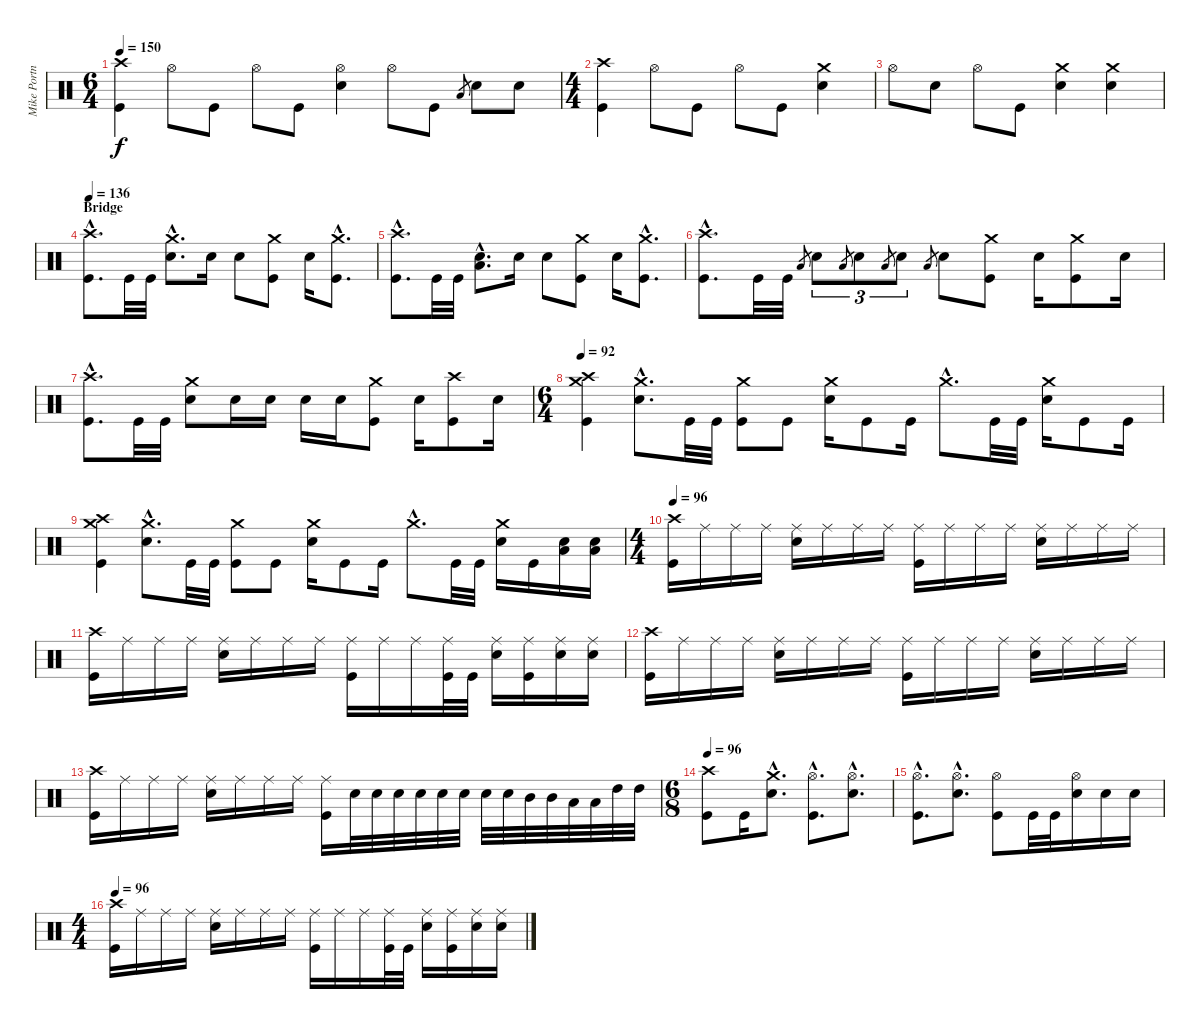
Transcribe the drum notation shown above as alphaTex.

\track ("Mike Portnoy" "Mike Portn") {instrument percussion}
\staff {score}
\articulation defaults
\ts (6 4)
\tempo 150
\clef neutral
\ks c
("Crash high (hit)" "Kick (hit)").4{dy f} "Hi-Hat (open)".8 "Kick (hit)".8 "Hi-Hat (open)".8 "Kick (hit)".8 ("Hi-Hat (open)" "Electric Snare (hit)").4 "Hi-Hat (open)".8 "Kick (hit)".8 "Low Tom (hit)".8{gr} "Electric Snare (hit)".8 "Electric Snare (hit)".8 |
\ts (4 4)
("Crash high (hit)" "Kick (hit)").4 "Hi-Hat (open)".8 "Kick (hit)".8 "Hi-Hat (open)".8 "Kick (hit)".8 ("Crash medium (hit)" "Electric Snare (hit)").4 |
"Hi-Hat (open)".8 "Electric Snare (hit)".8 "Hi-Hat (open)".8 "Kick (hit)".8 ("Crash medium (hit)" "Electric Snare (hit)").4 ("Crash medium (hit)" "Electric Snare (hit)").4 |
\section ("" "Bridge")
\tempo 136
("Crash high (hit)"{hac} "Kick (hit)"{hac}).8{d} "Kick (hit)".32 "Kick (hit)".32 ("Crash medium (hit)"{hac} "Electric Snare (hit)"{hac}).8{d} "Electric Snare (hit)".16 "Electric Snare (hit)".8 ("Crash medium (hit)" "Kick (hit)").8 "Electric Snare (hit)".16 ("Crash medium (hit)"{hac} "Kick (hit)"{hac}).8{d} |
("Crash high (hit)"{hac} "Kick (hit)"{hac}).8{d} "Kick (hit)".32 "Kick (hit)".32 ("Low Tom (hit)"{hac} "Electric Snare (hit)"{hac}).8{d} "Electric Snare (hit)".16 "Electric Snare (hit)".8 ("Crash medium (hit)" "Kick (hit)").8 "Electric Snare (hit)".16 ("Crash medium (hit)"{hac} "Kick (hit)"{hac}).8{d} |
("Crash high (hit)"{hac} "Kick (hit)"{hac}).8{d} "Kick (hit)".32 "Kick (hit)".32 "Low Tom (hit)".8{gr} "Electric Snare (hit)".8{tu (3 2)} "Low Tom (hit)".8{gr} "Electric Snare (hit)".8{tu (3 2)} "Low Tom (hit)".8{gr} "Electric Snare (hit)".8{tu (3 2)} "Low Tom (hit)".8{gr} "Electric Snare (hit)".8 ("Crash medium (hit)" "Kick (hit)").8 "Electric Snare (hit)".16 ("Crash medium (hit)" "Kick (hit)").8 "Electric Snare (hit)".16 |
("Crash high (hit)"{hac} "Kick (hit)"{hac}).8{d} "Kick (hit)".32 "Kick (hit)".32 ("Crash medium (hit)" "Electric Snare (hit)").8 "Electric Snare (hit)".16 "Electric Snare (hit)".16 "Electric Snare (hit)".16 "Electric Snare (hit)".16 ("Crash medium (hit)" "Kick (hit)").8 "Electric Snare (hit)".16 ("Crash high (hit)" "Kick (hit)").8 "Electric Snare (hit)".16 |
\ts (6 4)
\tempo 92
("Crash high (hit)" "Crash medium (hit)" "Kick (hit)").4 ("Crash medium (hit)"{hac} "Electric Snare (hit)"{hac}).8{d} "Kick (hit)".32 "Kick (hit)".32 ("Crash medium (hit)" "Kick (hit)").8 "Kick (hit)".8 ("Crash medium (hit)" "Electric Snare (hit)").16 "Kick (hit)".8 "Kick (hit)".16 "Crash medium (hit)"{hac}.8{d} "Kick (hit)".32 "Kick (hit)".32 ("Crash medium (hit)" "Electric Snare (hit)").16 "Kick (hit)".8 "Kick (hit)".16 |
("Crash high (hit)" "Crash medium (hit)" "Kick (hit)").4 ("Crash medium (hit)"{hac} "Electric Snare (hit)"{hac}).8{d} "Kick (hit)".32 "Kick (hit)".32 ("Crash medium (hit)" "Kick (hit)").8 "Kick (hit)".8 ("Crash medium (hit)" "Electric Snare (hit)").16 "Kick (hit)".8 "Kick (hit)".16 "Crash medium (hit)"{hac}.8{d} "Kick (hit)".32 "Kick (hit)".32 ("Crash medium (hit)" "Electric Snare (hit)").16 "Kick (hit)".16 ("Low Tom (hit)" "Electric Snare (hit)").16 ("Low Tom (hit)" "Electric Snare (hit)").16 |
\ts (4 4)
\tempo 96
("Crash high (hit)" "Kick (hit)").16 "Ride (middle)".16 "Ride (middle)".16 "Ride (middle)".16 ("Ride (middle)" "Electric Snare (hit)").16 "Ride (middle)".16 "Ride (middle)".16 "Ride (middle)".16 ("Ride (middle)" "Kick (hit)").16 "Ride (middle)".16 "Ride (middle)".16 "Ride (middle)".16 ("Ride (middle)" "Electric Snare (hit)").16 "Ride (middle)".16 "Ride (middle)".16 "Ride (middle)".16 |
("Crash high (hit)" "Kick (hit)").16 "Ride (middle)".16 "Ride (middle)".16 "Ride (middle)".16 ("Ride (middle)" "Electric Snare (hit)").16 "Ride (middle)".16 "Ride (middle)".16 "Ride (middle)".16 ("Ride (middle)" "Kick (hit)").16 "Ride (middle)".16 "Ride (middle)".16 ("Ride (middle)" "Kick (hit)").32 "Kick (hit)".32 ("Ride (middle)" "Electric Snare (hit)").16 ("Ride (middle)" "Kick (hit)").16 ("Ride (middle)" "Electric Snare (hit)").16 ("Ride (middle)" "Electric Snare (hit)").16 |
("Crash high (hit)" "Kick (hit)").16 "Ride (middle)".16 "Ride (middle)".16 "Ride (middle)".16 ("Ride (middle)" "Electric Snare (hit)").16 "Ride (middle)".16 "Ride (middle)".16 "Ride (middle)".16 ("Ride (middle)" "Kick (hit)").16 "Ride (middle)".16 "Ride (middle)".16 "Ride (middle)".16 ("Ride (middle)" "Electric Snare (hit)").16 "Ride (middle)".16 "Ride (middle)".16 "Ride (middle)".16 |
("Crash high (hit)" "Kick (hit)").16 "Ride (middle)".16 "Ride (middle)".16 "Ride (middle)".16 ("Ride (middle)" "Electric Snare (hit)").16 "Ride (middle)".16 "Ride (middle)".16 "Ride (middle)".16 ("Ride (middle)" "Kick (hit)").16 "Electric Snare (hit)".32 "Electric Snare (hit)".32 "Electric Snare (hit)".32 "Electric Snare (hit)".32 "Electric Snare (hit)".32 "Electric Snare (hit)".32 "Electric Snare (hit)".32 "Electric Snare (hit)".32 "Mid Tom (hit)".32 "Mid Tom (hit)".32 "Low Tom (hit)".32 "Low Tom (hit)".32 "High Tom (hit)".32 "High Tom (hit)".32 |
\ts (6 8)
\tempo 96
("Crash high (hit)" "Kick (hit)").8 "Kick (hit)".16 ("Crash medium (hit)"{hac} "Electric Snare (hit)"{hac}).8{d} ("Hi-Hat (open)"{hac} "Kick (hit)"{hac}).8{d} ("Hi-Hat (open)"{hac} "Electric Snare (hit)"{hac}).8{d} |
("Hi-Hat (open)"{hac} "Kick (hit)"{hac}).8{d} ("Hi-Hat (open)"{hac} "Electric Snare (hit)"{hac}).8{d} ("Hi-Hat (open)" "Kick (hit)").8 "Kick (hit)".32 "Kick (hit)".32 ("Hi-Hat (open)" "Electric Snare (hit)").16 "Electric Snare (hit)".16 "Electric Snare (hit)".16 |
\ts (4 4)
\tempo 96
("Crash high (hit)" "Kick (hit)").16 "Ride (middle)".16 "Ride (middle)".16 "Ride (middle)".16 ("Ride (middle)" "Electric Snare (hit)").16 "Ride (middle)".16 "Ride (middle)".16 "Ride (middle)".16 ("Ride (middle)" "Kick (hit)").16 "Ride (middle)".16 "Ride (middle)".16 ("Ride (middle)" "Kick (hit)").32 "Kick (hit)".32 ("Ride (middle)" "Electric Snare (hit)").16 ("Ride (middle)" "Kick (hit)").16 ("Ride (middle)" "Electric Snare (hit)").16 ("Ride (middle)" "Electric Snare (hit)").16
